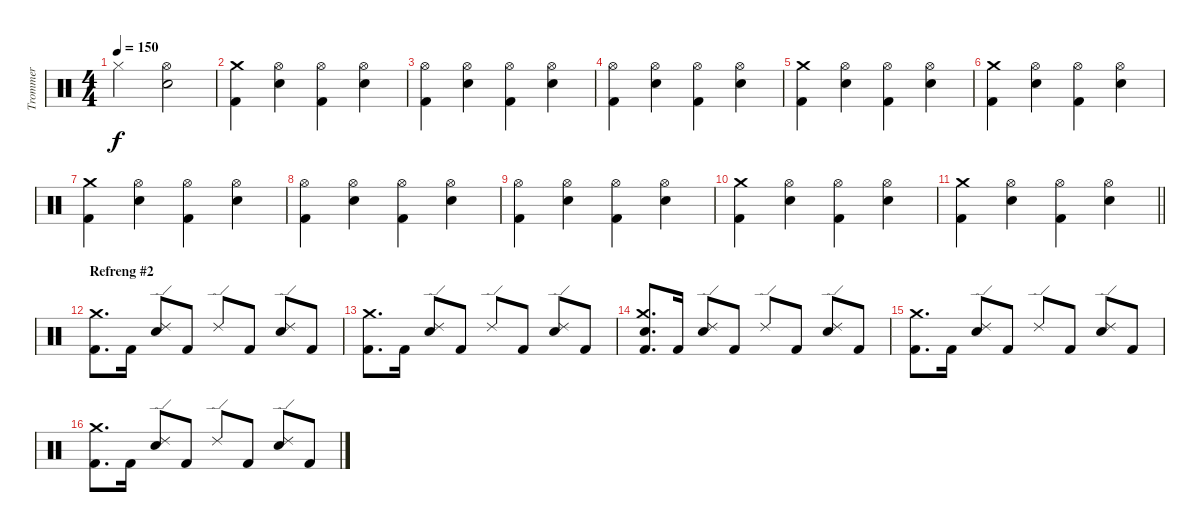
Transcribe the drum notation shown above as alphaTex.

\track ("Trommer" "Trommer") {instrument percussion}
\staff {score}
\articulation defaults
\ts (4 4)
\tempo 150
\clef neutral
\ks c "Hi-Hat (closed)".2{dy f}
("Hi-Hat (open)" "Snare (hit) 2").2 |
("Crash medium (hit)" "Kick (hit) 2").4 ("Hi-Hat (open)" "Snare (hit) 2").4 ("Hi-Hat (open)" "Kick (hit) 2").4 ("Hi-Hat (open)" "Snare (hit) 2").4 |
("Hi-Hat (open)" "Kick (hit) 2").4 ("Hi-Hat (open)" "Snare (hit) 2").4 ("Hi-Hat (open)" "Kick (hit) 2").4 ("Hi-Hat (open)" "Snare (hit) 2").4 |
("Hi-Hat (open)" "Kick (hit) 2").4 ("Hi-Hat (open)" "Snare (hit) 2").4 ("Hi-Hat (open)" "Kick (hit) 2").4 ("Hi-Hat (open)" "Snare (hit) 2").4 |
("Crash medium (hit)" "Kick (hit) 2").4 ("Hi-Hat (open)" "Snare (hit) 2").4 ("Hi-Hat (open)" "Kick (hit) 2").4 ("Hi-Hat (open)" "Snare (hit) 2").4 |
("Crash medium (hit)" "Kick (hit) 2").4 ("Hi-Hat (open)" "Snare (hit) 2").4 ("Hi-Hat (open)" "Kick (hit) 2").4 ("Hi-Hat (open)" "Snare (hit) 2").4 |
("Crash medium (hit)" "Kick (hit) 2").4 ("Hi-Hat (open)" "Snare (hit) 2").4 ("Hi-Hat (open)" "Kick (hit) 2").4 ("Hi-Hat (open)" "Snare (hit) 2").4 |
("Hi-Hat (open)" "Kick (hit) 2").4 ("Hi-Hat (open)" "Snare (hit) 2").4 ("Hi-Hat (open)" "Kick (hit) 2").4 ("Hi-Hat (open)" "Snare (hit) 2").4 |
("Hi-Hat (open)" "Kick (hit) 2").4 ("Hi-Hat (open)" "Snare (hit) 2").4 ("Hi-Hat (open)" "Kick (hit) 2").4 ("Hi-Hat (open)" "Snare (hit) 2").4 |
("Crash medium (hit)" "Kick (hit) 2").4 ("Hi-Hat (open)" "Snare (hit) 2").4 ("Hi-Hat (open)" "Kick (hit) 2").4 ("Hi-Hat (open)" "Snare (hit) 2").4 |
\barLineRight lightlight
("Crash medium (hit)" "Kick (hit) 2").4 ("Hi-Hat (open)" "Snare (hit) 2").4 ("Hi-Hat (open)" "Kick (hit) 2").4 ("Hi-Hat (open)" "Snare (hit) 2").4 |
\section ("" "Refreng #2")
("Crash medium (hit)" "Kick (hit) 2").8{d} "Kick (hit) 2".16 ("Ride (edge) 2" "Snare (hit) 2").8 "Kick (hit) 2".8 "Ride (edge) 2".8 "Kick (hit) 2".8 ("Ride (edge) 2" "Snare (hit) 2").8 "Kick (hit) 2".8 |
("Crash medium (hit)" "Kick (hit) 2").8{d} "Kick (hit) 2".16 ("Ride (edge) 2" "Snare (hit) 2").8 "Kick (hit) 2".8 "Ride (edge) 2".8 "Kick (hit) 2".8 ("Ride (edge) 2" "Snare (hit) 2").8 "Kick (hit) 2".8 |
("Crash medium (hit)" "Snare (hit) 2" "Kick (hit) 2").8{d} "Kick (hit) 2".16 ("Ride (edge) 2" "Snare (hit) 2").8 "Kick (hit) 2".8 "Ride (edge) 2".8 "Kick (hit) 2".8 ("Ride (edge) 2" "Snare (hit) 2").8 "Kick (hit) 2".8 |
("Crash medium (hit)" "Kick (hit) 2").8{d} "Kick (hit) 2".16 ("Ride (edge) 2" "Snare (hit) 2").8 "Kick (hit) 2".8 "Ride (edge) 2".8 "Kick (hit) 2".8 ("Ride (edge) 2" "Snare (hit) 2").8 "Kick (hit) 2".8 |
("Crash medium (hit)" "Kick (hit) 2").8{d} "Kick (hit) 2".16 ("Ride (edge) 2" "Snare (hit) 2").8 "Kick (hit) 2".8 "Ride (edge) 2".8 "Kick (hit) 2".8 ("Ride (edge) 2" "Snare (hit) 2").8 "Kick (hit) 2".8
